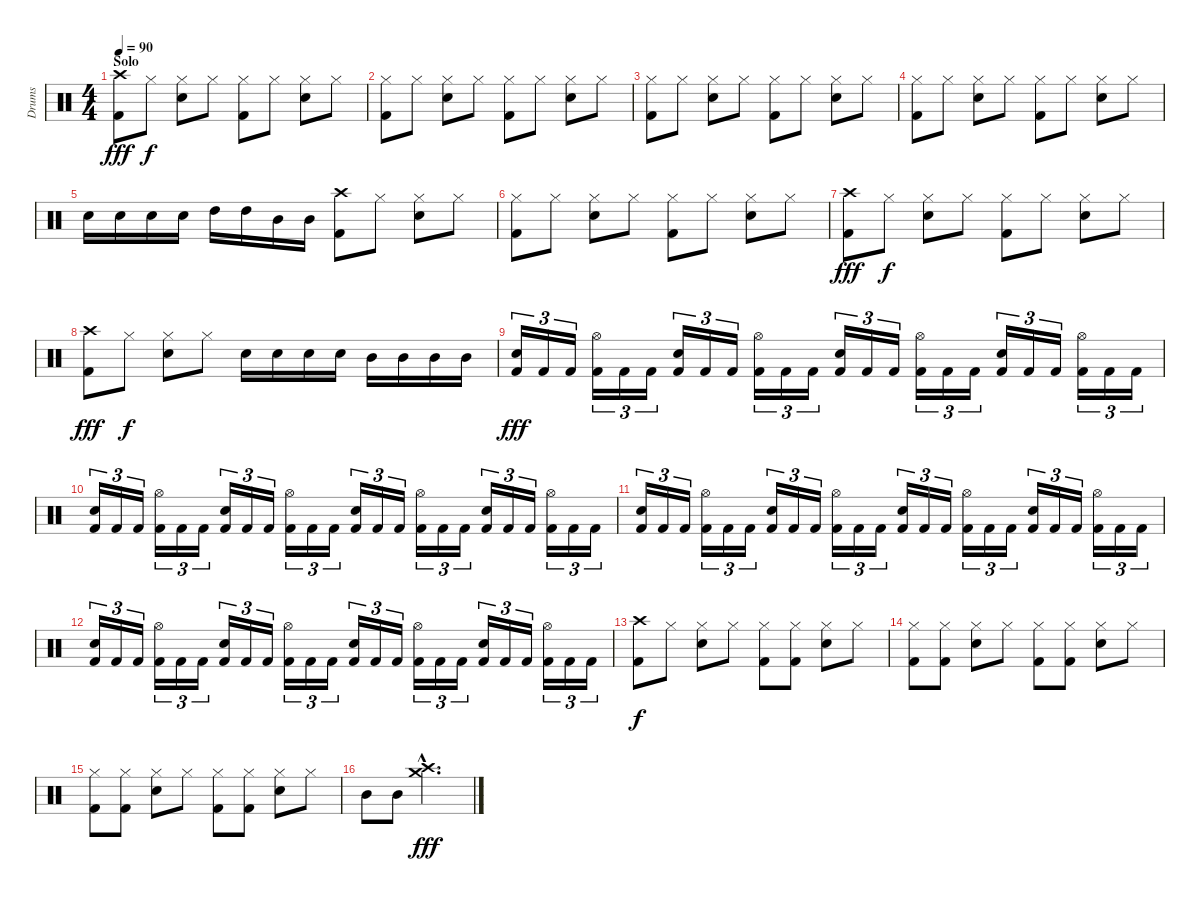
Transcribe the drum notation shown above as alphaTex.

\track ("Drums" "Drums") {instrument percussion}
\staff {score}
\articulation defaults
\ts (4 4)
\section ("" "Solo")
\tempo 90
\clef neutral
\ks c
("Crash high (hit)" "Kick (hit) 2").8{dy fff} "Hi-Hat (closed)".8{dy f} ("Hi-Hat (closed)" "Electric Snare (hit)").8 "Hi-Hat (closed)".8 ("Hi-Hat (closed)" "Kick (hit) 2").8 "Hi-Hat (closed)".8 ("Hi-Hat (closed)" "Electric Snare (hit)").8 "Hi-Hat (closed)".8 |
("Hi-Hat (closed)" "Kick (hit) 2").8 "Hi-Hat (closed)".8 ("Hi-Hat (closed)" "Electric Snare (hit)").8 "Hi-Hat (closed)".8 ("Hi-Hat (closed)" "Kick (hit) 2").8 "Hi-Hat (closed)".8 ("Hi-Hat (closed)" "Electric Snare (hit)").8 "Hi-Hat (closed)".8 |
("Hi-Hat (closed)" "Kick (hit) 2").8 "Hi-Hat (closed)".8 ("Hi-Hat (closed)" "Electric Snare (hit)").8 "Hi-Hat (closed)".8 ("Hi-Hat (closed)" "Kick (hit) 2").8 "Hi-Hat (closed)".8 ("Hi-Hat (closed)" "Electric Snare (hit)").8 "Hi-Hat (closed)".8 |
("Hi-Hat (closed)" "Kick (hit) 2").8 "Hi-Hat (closed)".8 ("Hi-Hat (closed)" "Electric Snare (hit)").8 "Hi-Hat (closed)".8 ("Hi-Hat (closed)" "Kick (hit) 2").8 "Hi-Hat (closed)".8 ("Hi-Hat (closed)" "Electric Snare (hit)").8 "Hi-Hat (closed)".8 |
"Electric Snare (hit)".16 "Electric Snare (hit)".16 "Electric Snare (hit)".16 "Electric Snare (hit)".16 "High Tom (hit)".16 "High Tom (hit)".16 "Mid Tom (hit)".16 "Mid Tom (hit)".16 ("Crash high (hit)" "Kick (hit) 2").8 "Hi-Hat (closed)".8 ("Hi-Hat (closed)" "Electric Snare (hit)").8 "Hi-Hat (closed)".8 |
("Hi-Hat (closed)" "Kick (hit) 2").8 "Hi-Hat (closed)".8 ("Hi-Hat (closed)" "Electric Snare (hit)").8 "Hi-Hat (closed)".8 ("Hi-Hat (closed)" "Kick (hit) 2").8 "Hi-Hat (closed)".8 ("Hi-Hat (closed)" "Electric Snare (hit)").8 "Hi-Hat (closed)".8 |
("Crash high (hit)" "Kick (hit) 2").8{dy fff} "Hi-Hat (closed)".8{dy f} ("Hi-Hat (closed)" "Electric Snare (hit)").8 "Hi-Hat (closed)".8 ("Hi-Hat (closed)" "Kick (hit) 2").8 "Hi-Hat (closed)".8 ("Hi-Hat (closed)" "Electric Snare (hit)").8 "Hi-Hat (closed)".8 |
("Crash high (hit)" "Kick (hit) 2").8{dy fff} "Hi-Hat (closed)".8{dy f} ("Hi-Hat (closed)" "Electric Snare (hit)").8 "Hi-Hat (closed)".8 "Electric Snare (hit)".16 "Electric Snare (hit)".16 "Electric Snare (hit)".16 "Electric Snare (hit)".16 "Mid Tom (hit)".16 "Mid Tom (hit)".16 "Mid Tom (hit)".16 "Mid Tom (hit)".16 |
("Electric Snare (hit)" "Kick (hit) 2").16{tu (3 2) dy fff} "Kick (hit) 2".16{tu (3 2)} "Kick (hit) 2".16{tu (3 2)} ("Hi-Hat (open)" "Kick (hit) 2").16{tu (3 2)} "Kick (hit) 2".16{tu (3 2)} "Kick (hit) 2".16{tu (3 2)} ("Electric Snare (hit)" "Kick (hit) 2").16{tu (3 2)} "Kick (hit) 2".16{tu (3 2)} "Kick (hit) 2".16{tu (3 2)} ("Hi-Hat (open)" "Kick (hit) 2").16{tu (3 2)} "Kick (hit) 2".16{tu (3 2)} "Kick (hit) 2".16{tu (3 2)} ("Electric Snare (hit)" "Kick (hit) 2").16{tu (3 2)} "Kick (hit) 2".16{tu (3 2)} "Kick (hit) 2".16{tu (3 2)} ("Hi-Hat (open)" "Kick (hit) 2").16{tu (3 2)} "Kick (hit) 2".16{tu (3 2)} "Kick (hit) 2".16{tu (3 2)} ("Electric Snare (hit)" "Kick (hit) 2").16{tu (3 2)} "Kick (hit) 2".16{tu (3 2)} "Kick (hit) 2".16{tu (3 2)} ("Hi-Hat (open)" "Kick (hit) 2").16{tu (3 2)} "Kick (hit) 2".16{tu (3 2)} "Kick (hit) 2".16{tu (3 2)} |
("Electric Snare (hit)" "Kick (hit) 2").16{tu (3 2)} "Kick (hit) 2".16{tu (3 2)} "Kick (hit) 2".16{tu (3 2)} ("Hi-Hat (open)" "Kick (hit) 2").16{tu (3 2)} "Kick (hit) 2".16{tu (3 2)} "Kick (hit) 2".16{tu (3 2)} ("Electric Snare (hit)" "Kick (hit) 2").16{tu (3 2)} "Kick (hit) 2".16{tu (3 2)} "Kick (hit) 2".16{tu (3 2)} ("Hi-Hat (open)" "Kick (hit) 2").16{tu (3 2)} "Kick (hit) 2".16{tu (3 2)} "Kick (hit) 2".16{tu (3 2)} ("Electric Snare (hit)" "Kick (hit) 2").16{tu (3 2)} "Kick (hit) 2".16{tu (3 2)} "Kick (hit) 2".16{tu (3 2)} ("Hi-Hat (open)" "Kick (hit) 2").16{tu (3 2)} "Kick (hit) 2".16{tu (3 2)} "Kick (hit) 2".16{tu (3 2)} ("Electric Snare (hit)" "Kick (hit) 2").16{tu (3 2)} "Kick (hit) 2".16{tu (3 2)} "Kick (hit) 2".16{tu (3 2)} ("Hi-Hat (open)" "Kick (hit) 2").16{tu (3 2)} "Kick (hit) 2".16{tu (3 2)} "Kick (hit) 2".16{tu (3 2)} |
("Electric Snare (hit)" "Kick (hit) 2").16{tu (3 2)} "Kick (hit) 2".16{tu (3 2)} "Kick (hit) 2".16{tu (3 2)} ("Hi-Hat (open)" "Kick (hit) 2").16{tu (3 2)} "Kick (hit) 2".16{tu (3 2)} "Kick (hit) 2".16{tu (3 2)} ("Electric Snare (hit)" "Kick (hit) 2").16{tu (3 2)} "Kick (hit) 2".16{tu (3 2)} "Kick (hit) 2".16{tu (3 2)} ("Hi-Hat (open)" "Kick (hit) 2").16{tu (3 2)} "Kick (hit) 2".16{tu (3 2)} "Kick (hit) 2".16{tu (3 2)} ("Electric Snare (hit)" "Kick (hit) 2").16{tu (3 2)} "Kick (hit) 2".16{tu (3 2)} "Kick (hit) 2".16{tu (3 2)} ("Hi-Hat (open)" "Kick (hit) 2").16{tu (3 2)} "Kick (hit) 2".16{tu (3 2)} "Kick (hit) 2".16{tu (3 2)} ("Electric Snare (hit)" "Kick (hit) 2").16{tu (3 2)} "Kick (hit) 2".16{tu (3 2)} "Kick (hit) 2".16{tu (3 2)} ("Hi-Hat (open)" "Kick (hit) 2").16{tu (3 2)} "Kick (hit) 2".16{tu (3 2)} "Kick (hit) 2".16{tu (3 2)} |
("Electric Snare (hit)" "Kick (hit) 2").16{tu (3 2)} "Kick (hit) 2".16{tu (3 2)} "Kick (hit) 2".16{tu (3 2)} ("Hi-Hat (open)" "Kick (hit) 2").16{tu (3 2)} "Kick (hit) 2".16{tu (3 2)} "Kick (hit) 2".16{tu (3 2)} ("Electric Snare (hit)" "Kick (hit) 2").16{tu (3 2)} "Kick (hit) 2".16{tu (3 2)} "Kick (hit) 2".16{tu (3 2)} ("Hi-Hat (open)" "Kick (hit) 2").16{tu (3 2)} "Kick (hit) 2".16{tu (3 2)} "Kick (hit) 2".16{tu (3 2)} ("Electric Snare (hit)" "Kick (hit) 2").16{tu (3 2)} "Kick (hit) 2".16{tu (3 2)} "Kick (hit) 2".16{tu (3 2)} ("Hi-Hat (open)" "Kick (hit) 2").16{tu (3 2)} "Kick (hit) 2".16{tu (3 2)} "Kick (hit) 2".16{tu (3 2)} ("Electric Snare (hit)" "Kick (hit) 2").16{tu (3 2)} "Kick (hit) 2".16{tu (3 2)} "Kick (hit) 2".16{tu (3 2)} ("Hi-Hat (open)" "Kick (hit) 2").16{tu (3 2)} "Kick (hit) 2".16{tu (3 2)} "Kick (hit) 2".16{tu (3 2)} |
("Crash high (hit)" "Kick (hit) 2").8{dy f} "Hi-Hat (closed)".8 ("Hi-Hat (closed)" "Electric Snare (hit)").8 "Hi-Hat (closed)".8 ("Hi-Hat (closed)" "Kick (hit) 2").8 ("Hi-Hat (closed)" "Kick (hit) 2").8 ("Hi-Hat (closed)" "Electric Snare (hit)").8 "Hi-Hat (closed)".8 |
("Hi-Hat (closed)" "Kick (hit) 2").8 ("Hi-Hat (closed)" "Kick (hit) 2").8 ("Hi-Hat (closed)" "Electric Snare (hit)").8 "Hi-Hat (closed)".8 ("Hi-Hat (closed)" "Kick (hit) 2").8 ("Hi-Hat (closed)" "Kick (hit) 2").8 ("Hi-Hat (closed)" "Electric Snare (hit)").8 "Hi-Hat (closed)".8 |
("Hi-Hat (closed)" "Kick (hit) 2").8 ("Hi-Hat (closed)" "Kick (hit) 2").8 ("Hi-Hat (closed)" "Electric Snare (hit)").8 "Hi-Hat (closed)".8 ("Hi-Hat (closed)" "Kick (hit) 2").8 ("Hi-Hat (closed)" "Kick (hit) 2").8 ("Hi-Hat (closed)" "Electric Snare (hit)").8 "Hi-Hat (closed)".8 |
"Mid Tom (hit)".8 "Mid Tom (hit)".8 ("Crash high (hit)"{hac} "Crash medium (hit)"{hac}).2{d dy fff}
